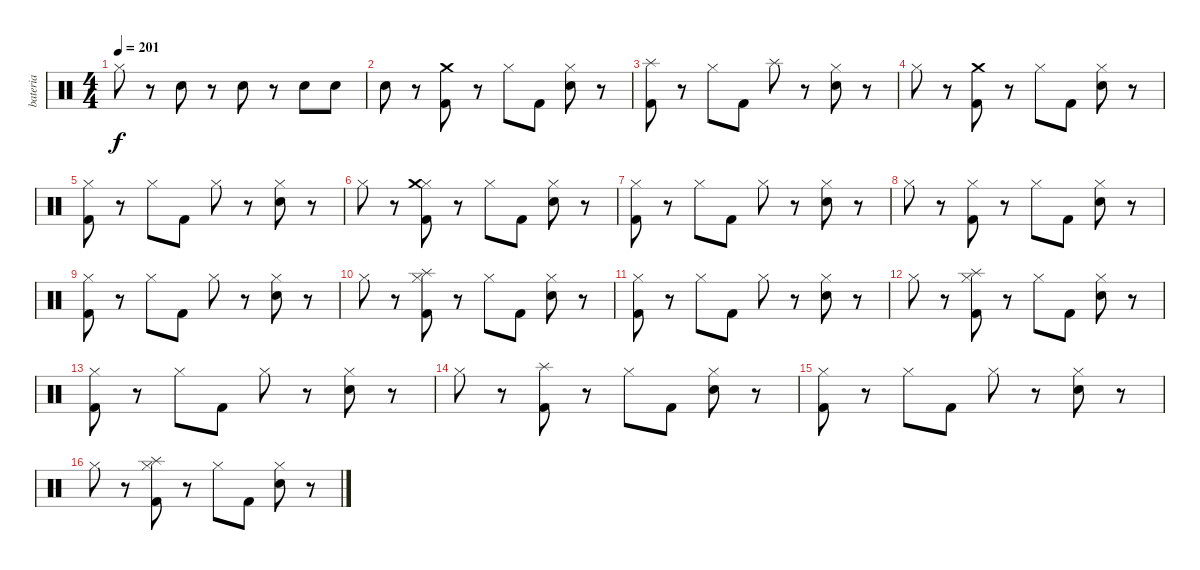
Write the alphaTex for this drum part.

\track ("bateria" "bateria") {instrument percussion}
\staff {score}
\articulation defaults
\ts (4 4)
\tempo 201
\clef neutral
\ks c "Hi-Hat (closed)".8{dy f}
r.8 "Electric Snare (hit)".8 r.8 "Electric Snare (hit)".8 r.8 "Electric Snare (hit)".8 "Electric Snare (hit)".8 |
"Snare (hit) 2".8 r.8 ("Crash medium (hit)" "Kick (hit) 2").8 r.8 "Hi-Hat (closed)".8 "Kick (hit) 2".8 ("Hi-Hat (closed)" "Electric Snare (hit)").8 r.8 |
("Splash (hit)" "Kick (hit) 2").8 r.8 "Hi-Hat (closed)".8 "Kick (hit) 2".8 "Splash (hit)".8 r.8 ("Hi-Hat (closed)" "Electric Snare (hit)").8 r.8 |
"Hi-Hat (closed)".8 r.8 ("Crash medium (hit)" "Kick (hit) 2").8 r.8 "Hi-Hat (closed)".8 "Kick (hit) 2".8 ("Hi-Hat (closed)" "Electric Snare (hit)").8 r.8 |
("Hi-Hat (closed)" "Kick (hit) 2").8 r.8 "Hi-Hat (closed)".8 "Kick (hit) 2".8 "Hi-Hat (closed)".8 r.8 ("Hi-Hat (closed)" "Electric Snare (hit)").8 r.8 |
"Hi-Hat (closed)".8 r.8 ("Hi-Hat (closed)" "Crash medium (hit)" "Kick (hit) 2").8 r.8 "Hi-Hat (closed)".8 "Kick (hit) 2".8 ("Hi-Hat (closed)" "Electric Snare (hit)").8 r.8 |
("Hi-Hat (closed)" "Kick (hit) 2").8 r.8 "Hi-Hat (closed)".8 "Kick (hit) 2".8 "Hi-Hat (closed)".8 r.8 ("Hi-Hat (closed)" "Electric Snare (hit)").8 r.8 |
"Hi-Hat (closed)".8 r.8 ("Hi-Hat (closed)" "Kick (hit) 2").8 r.8 "Hi-Hat (closed)".8 "Kick (hit) 2".8 ("Hi-Hat (closed)" "Electric Snare (hit)").8 r.8 |
("Hi-Hat (closed)" "Kick (hit) 2").8 r.8 "Hi-Hat (closed)".8 "Kick (hit) 2".8 "Hi-Hat (closed)".8 r.8 ("Hi-Hat (closed)" "Electric Snare (hit)").8 r.8 |
"Hi-Hat (closed)".8 r.8 ("Hi-Hat (closed)" "Splash (hit)" "Kick (hit) 2").8 r.8 "Hi-Hat (closed)".8 "Kick (hit) 2".8 ("Hi-Hat (closed)" "Electric Snare (hit)").8 r.8 |
("Hi-Hat (closed)" "Kick (hit) 2").8 r.8 "Hi-Hat (closed)".8 "Kick (hit) 2".8 "Hi-Hat (closed)".8 r.8 ("Hi-Hat (closed)" "Electric Snare (hit)").8 r.8 |
"Hi-Hat (closed)".8 r.8 ("Hi-Hat (closed)" "Splash (hit)" "Kick (hit) 2").8 r.8 "Hi-Hat (closed)".8 "Kick (hit) 2".8 ("Hi-Hat (closed)" "Electric Snare (hit)").8 r.8 |
("Hi-Hat (closed)" "Kick (hit) 2").8 r.8 "Hi-Hat (closed)".8 "Kick (hit) 2".8 "Hi-Hat (closed)".8 r.8 ("Hi-Hat (closed)" "Electric Snare (hit)").8 r.8 |
"Hi-Hat (closed)".8 r.8 ("Splash (hit)" "Kick (hit) 2").8 r.8 "Hi-Hat (closed)".8 "Kick (hit) 2".8 ("Hi-Hat (closed)" "Electric Snare (hit)").8 r.8 |
("Hi-Hat (closed)" "Kick (hit) 2").8 r.8 "Hi-Hat (closed)".8 "Kick (hit) 2".8 "Hi-Hat (closed)".8 r.8 ("Hi-Hat (closed)" "Electric Snare (hit)").8 r.8 |
"Hi-Hat (closed)".8 r.8 ("Hi-Hat (closed)" "Splash (hit)" "Kick (hit) 2").8 r.8 "Hi-Hat (closed)".8 "Kick (hit) 2".8 ("Hi-Hat (closed)" "Electric Snare (hit)").8 r.8
